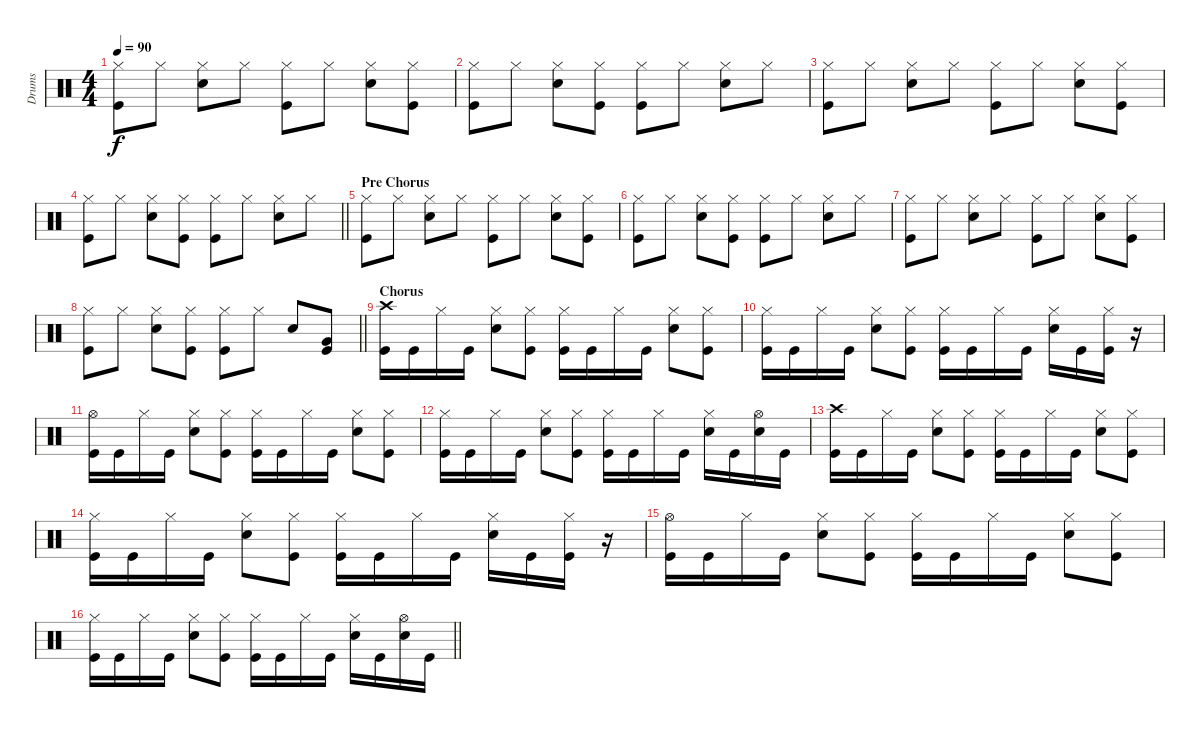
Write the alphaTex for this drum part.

\track ("Drums" "Drums") {instrument percussion}
\staff {score}
\articulation defaults
\ts (4 4)
\tempo 90
\clef neutral
\ks c
("Hi-Hat (closed)" "Kick (hit)").8{dy f} "Hi-Hat (closed)".8 ("Hi-Hat (closed)" "Snare (hit) 2").8 "Hi-Hat (closed)".8 ("Hi-Hat (closed)" "Kick (hit)").8 "Hi-Hat (closed)".8 ("Hi-Hat (closed)" "Snare (hit) 2").8 ("Hi-Hat (closed)" "Kick (hit)").8 |
("Hi-Hat (closed)" "Kick (hit)").8 "Hi-Hat (closed)".8 ("Hi-Hat (closed)" "Snare (hit) 2").8 ("Hi-Hat (closed)" "Kick (hit)").8 ("Hi-Hat (closed)" "Kick (hit)").8 "Hi-Hat (closed)".8 ("Hi-Hat (closed)" "Snare (hit) 2").8 "Hi-Hat (closed)".8 |
("Hi-Hat (closed)" "Kick (hit)").8 "Hi-Hat (closed)".8 ("Hi-Hat (closed)" "Snare (hit) 2").8 "Hi-Hat (closed)".8 ("Hi-Hat (closed)" "Kick (hit)").8 "Hi-Hat (closed)".8 ("Hi-Hat (closed)" "Snare (hit) 2").8 ("Hi-Hat (closed)" "Kick (hit)").8 |
\barLineRight lightlight
("Hi-Hat (closed)" "Kick (hit)").8 "Hi-Hat (closed)".8 ("Hi-Hat (closed)" "Snare (hit) 2").8 ("Hi-Hat (closed)" "Kick (hit)").8 ("Hi-Hat (closed)" "Kick (hit)").8 "Hi-Hat (closed)".8 ("Hi-Hat (closed)" "Snare (hit) 2").8 "Hi-Hat (closed)".8 |
\section ("" "Pre Chorus")
("Hi-Hat (closed)" "Kick (hit)").8 "Hi-Hat (closed)".8 ("Hi-Hat (closed)" "Snare (hit) 2").8 "Hi-Hat (closed)".8 ("Hi-Hat (closed)" "Kick (hit)").8 "Hi-Hat (closed)".8 ("Hi-Hat (closed)" "Snare (hit) 2").8 ("Hi-Hat (closed)" "Kick (hit)").8 |
("Hi-Hat (closed)" "Kick (hit)").8 "Hi-Hat (closed)".8 ("Hi-Hat (closed)" "Snare (hit) 2").8 ("Hi-Hat (closed)" "Kick (hit)").8 ("Hi-Hat (closed)" "Kick (hit)").8 "Hi-Hat (closed)".8 ("Hi-Hat (closed)" "Snare (hit) 2").8 "Hi-Hat (closed)".8 |
("Hi-Hat (closed)" "Kick (hit)").8 "Hi-Hat (closed)".8 ("Hi-Hat (closed)" "Snare (hit) 2").8 "Hi-Hat (closed)".8 ("Hi-Hat (closed)" "Kick (hit)").8 "Hi-Hat (closed)".8 ("Hi-Hat (closed)" "Snare (hit) 2").8 ("Hi-Hat (closed)" "Kick (hit)").8 |
\barLineRight lightlight
("Hi-Hat (closed)" "Kick (hit)").8 "Hi-Hat (closed)".8 ("Hi-Hat (closed)" "Snare (hit) 2").8 ("Hi-Hat (closed)" "Kick (hit)").8 ("Hi-Hat (closed)" "Kick (hit)").8 "Hi-Hat (closed)".8 "Snare (hit) 2".8 ("Very Low Tom (hit)" "Kick (hit)").8 |
\section ("" "Chorus")
("Crash high (hit)" "Kick (hit)").16 "Kick (hit)".16 "Hi-Hat (closed)".16 "Kick (hit)".16 ("Hi-Hat (closed)" "Snare (hit) 2").8 ("Hi-Hat (closed)" "Kick (hit)").8 ("Hi-Hat (closed)" "Kick (hit)").16 "Kick (hit)".16 "Hi-Hat (closed)".16 "Kick (hit)".16 ("Hi-Hat (closed)" "Snare (hit) 2").8 ("Hi-Hat (closed)" "Kick (hit)").8 |
("Hi-Hat (closed)" "Kick (hit)").16 "Kick (hit)".16 "Hi-Hat (closed)".16 "Kick (hit)".16 ("Hi-Hat (closed)" "Snare (hit) 2").8 ("Hi-Hat (closed)" "Kick (hit)").8 ("Hi-Hat (closed)" "Kick (hit)").16 "Kick (hit)".16 "Hi-Hat (closed)".16 "Kick (hit)".16 ("Hi-Hat (closed)" "Snare (hit) 2").16 "Kick (hit)".16 ("Hi-Hat (closed)" "Kick (hit)").16 r.16 |
("Hi-Hat (open)" "Kick (hit)").16 "Kick (hit)".16 "Hi-Hat (closed)".16 "Kick (hit)".16 ("Hi-Hat (closed)" "Snare (hit) 2").8 ("Hi-Hat (closed)" "Kick (hit)").8 ("Hi-Hat (closed)" "Kick (hit)").16 "Kick (hit)".16 "Hi-Hat (closed)".16 "Kick (hit)".16 ("Hi-Hat (closed)" "Snare (hit) 2").8 ("Hi-Hat (closed)" "Kick (hit)").8 |
("Hi-Hat (closed)" "Kick (hit)").16 "Kick (hit)".16 "Hi-Hat (closed)".16 "Kick (hit)".16 ("Hi-Hat (closed)" "Snare (hit) 2").8 ("Hi-Hat (closed)" "Kick (hit)").8 ("Hi-Hat (closed)" "Kick (hit)").16 "Kick (hit)".16 "Hi-Hat (closed)".16 "Kick (hit)".16 ("Hi-Hat (closed)" "Snare (hit) 2").16 "Kick (hit)".16 ("Hi-Hat (open)" "Snare (hit) 2").16 "Kick (hit)".16 |
("Crash high (hit)" "Kick (hit)").16 "Kick (hit)".16 "Hi-Hat (closed)".16 "Kick (hit)".16 ("Hi-Hat (closed)" "Snare (hit) 2").8 ("Hi-Hat (closed)" "Kick (hit)").8 ("Hi-Hat (closed)" "Kick (hit)").16 "Kick (hit)".16 "Hi-Hat (closed)".16 "Kick (hit)".16 ("Hi-Hat (closed)" "Snare (hit) 2").8 ("Hi-Hat (closed)" "Kick (hit)").8 |
("Hi-Hat (closed)" "Kick (hit)").16 "Kick (hit)".16 "Hi-Hat (closed)".16 "Kick (hit)".16 ("Hi-Hat (closed)" "Snare (hit) 2").8 ("Hi-Hat (closed)" "Kick (hit)").8 ("Hi-Hat (closed)" "Kick (hit)").16 "Kick (hit)".16 "Hi-Hat (closed)".16 "Kick (hit)".16 ("Hi-Hat (closed)" "Snare (hit) 2").16 "Kick (hit)".16 ("Hi-Hat (closed)" "Kick (hit)").16 r.16 |
("Hi-Hat (open)" "Kick (hit)").16 "Kick (hit)".16 "Hi-Hat (closed)".16 "Kick (hit)".16 ("Hi-Hat (closed)" "Snare (hit) 2").8 ("Hi-Hat (closed)" "Kick (hit)").8 ("Hi-Hat (closed)" "Kick (hit)").16 "Kick (hit)".16 "Hi-Hat (closed)".16 "Kick (hit)".16 ("Hi-Hat (closed)" "Snare (hit) 2").8 ("Hi-Hat (closed)" "Kick (hit)").8 |
\barLineRight lightlight
("Hi-Hat (closed)" "Kick (hit)").16 "Kick (hit)".16 "Hi-Hat (closed)".16 "Kick (hit)".16 ("Hi-Hat (closed)" "Snare (hit) 2").8 ("Hi-Hat (closed)" "Kick (hit)").8 ("Hi-Hat (closed)" "Kick (hit)").16 "Kick (hit)".16 "Hi-Hat (closed)".16 "Kick (hit)".16 ("Hi-Hat (closed)" "Snare (hit) 2").16 "Kick (hit)".16 ("Hi-Hat (open)" "Snare (hit) 2").16 "Kick (hit)".16
